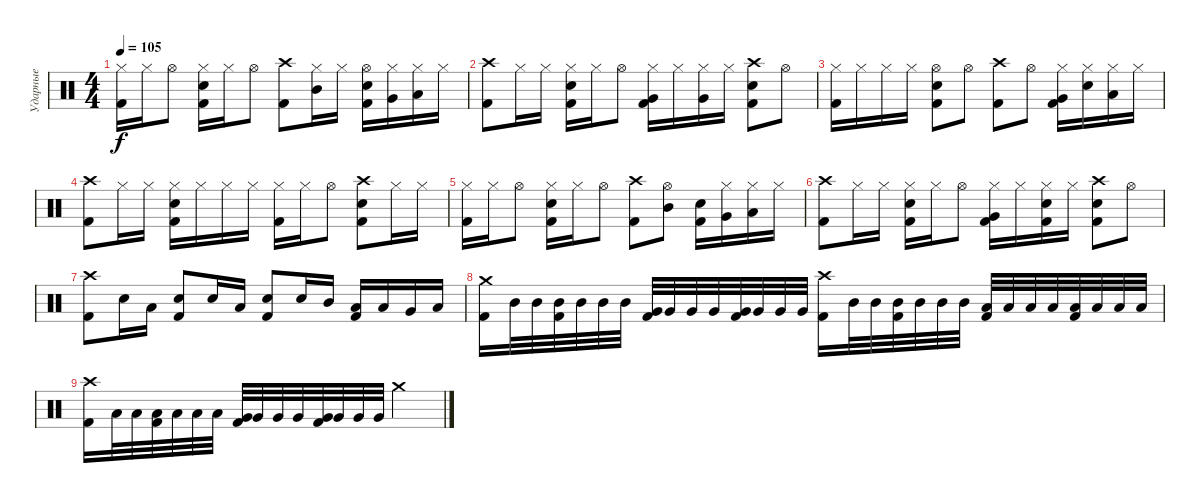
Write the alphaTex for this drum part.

\track ("Ударные" "Ударные") {instrument percussion}
\staff {score}
\articulation defaults
\ts (4 4)
\tempo 105
\clef neutral
\ks c
("Hi-Hat (closed)" "Kick (hit) 2").16{dy f} "Hi-Hat (closed)".16 "Hi-Hat (open)".8 ("Hi-Hat (closed)" "Kick (hit) 2" "Electric Snare (hit)").16 "Hi-Hat (closed)".16 "Hi-Hat (open)".8 ("Crash high (hit)" "Kick (hit) 2").8 ("Hi-Hat (closed)" "Mid Tom (hit)").16 "Hi-Hat (closed)".16 ("Hi-Hat (open)" "Kick (hit) 2" "Electric Snare (hit)").16 ("Hi-Hat (closed)" "Very Low Tom (hit)").16 ("Hi-Hat (closed)" "Low Floor Tom (hit)").16 "Hi-Hat (closed)".16 |
("Crash high (hit)" "Kick (hit) 2").8 "Hi-Hat (closed)".16 "Hi-Hat (closed)".16 ("Hi-Hat (closed)" "Kick (hit) 2" "Electric Snare (hit)").16 "Hi-Hat (closed)".16 "Hi-Hat (open)".8 ("Hi-Hat (closed)" "Kick (hit) 2" "Very Low Tom (hit)").16 "Hi-Hat (closed)".16 ("Hi-Hat (closed)" "Very Low Tom (hit)").16 "Hi-Hat (closed)".16 ("Crash high (hit)" "Kick (hit) 2" "Electric Snare (hit)").8 "Hi-Hat (open)".8 |
("Hi-Hat (closed)" "Kick (hit) 2").16 "Hi-Hat (closed)".16 "Hi-Hat (closed)".16 "Hi-Hat (closed)".16 ("Hi-Hat (open)" "Kick (hit) 2" "Electric Snare (hit)").8 "Hi-Hat (open)".8 ("Crash high (hit)" "Kick (hit) 2").8 "Hi-Hat (open)".8 ("Hi-Hat (closed)" "Very Low Tom (hit)" "Kick (hit) 2").16 ("Hi-Hat (closed)" "Electric Snare (hit)").16 ("Hi-Hat (closed)" "Low Tom (hit)").16 "Hi-Hat (closed)".16 |
("Crash high (hit)" "Kick (hit) 2").8 "Hi-Hat (closed)".16 "Hi-Hat (closed)".16 ("Hi-Hat (closed)" "Kick (hit) 2" "Electric Snare (hit)").16 "Hi-Hat (closed)".16 "Hi-Hat (closed)".16 "Hi-Hat (closed)".16 ("Hi-Hat (closed)" "Kick (hit) 2").16 "Hi-Hat (closed)".16 "Hi-Hat (open)".8 ("Crash high (hit)" "Kick (hit) 2" "Electric Snare (hit)").8 "Hi-Hat (closed)".16 "Hi-Hat (closed)".16 |
("Hi-Hat (closed)" "Kick (hit) 2").16 "Hi-Hat (closed)".16 "Hi-Hat (open)".8 ("Hi-Hat (closed)" "Kick (hit) 2" "Electric Snare (hit)").16 "Hi-Hat (closed)".16 "Hi-Hat (open)".8 ("Crash high (hit)" "Kick (hit) 2").8 ("Hi-Hat (open)" "Mid Tom (hit)").8 ("Kick (hit) 2" "Electric Snare (hit)").16 ("Hi-Hat (closed)" "Very Low Tom (hit)").16 ("Hi-Hat (closed)" "Low Floor Tom (hit)").16 "Hi-Hat (closed)".16 |
("Crash high (hit)" "Kick (hit) 2").8 "Hi-Hat (closed)".16 "Hi-Hat (closed)".16 ("Hi-Hat (closed)" "Kick (hit) 2" "Electric Snare (hit)").16 "Hi-Hat (closed)".16 "Hi-Hat (open)".8 ("Hi-Hat (closed)" "Kick (hit) 2" "Very Low Tom (hit)").16 "Hi-Hat (closed)".16 ("Hi-Hat (closed)" "Electric Snare (hit)" "Kick (hit) 2").16 "Hi-Hat (closed)".16 ("Crash high (hit)" "Kick (hit) 2" "Electric Snare (hit)").8 "Hi-Hat (open)".8 |
("Crash high (hit)" "Kick (hit) 2").8 "Electric Snare (hit)".16 "Low Tom (hit)".16 ("Electric Snare (hit)" "Kick (hit) 2").8 "Electric Snare (hit)".16 "Low Tom (hit)".16 ("Electric Snare (hit)" "Kick (hit) 2").8 "Electric Snare (hit)".16 "Mid Tom (hit)".16 ("Low Tom (hit)" "Kick (hit) 2").16 "Low Tom (hit)".16 "Very Low Tom (hit)".16 "Low Floor Tom (hit)".16 |
("Crash medium (hit)" "Kick (hit) 2").16 "Mid Tom (hit)".32 "Mid Tom (hit)".32 ("Mid Tom (hit)" "Kick (hit) 2").32 "Mid Tom (hit)".32 "Mid Tom (hit)".32 "Mid Tom (hit)".32 ("Very Low Tom (hit)" "Kick (hit) 2").32 "Very Low Tom (hit)".32 "Very Low Tom (hit)".32 "Very Low Tom (hit)".32 ("Very Low Tom (hit)" "Kick (hit) 2").32 "Very Low Tom (hit)".32 "Very Low Tom (hit)".32 "Very Low Tom (hit)".32 ("Crash high (hit)" "Kick (hit) 2").16 "Mid Tom (hit)".32 "Mid Tom (hit)".32 ("Mid Tom (hit)" "Kick (hit) 2").32 "Mid Tom (hit)".32 "Mid Tom (hit)".32 "Mid Tom (hit)".32 ("Low Tom (hit)" "Kick (hit) 2").32 "Low Tom (hit)".32 "Low Tom (hit)".32 "Low Tom (hit)".32 ("Low Tom (hit)" "Kick (hit) 2").32 "Low Tom (hit)".32 "Low Tom (hit)".32 "Low Tom (hit)".32 |
("Crash high (hit)" "Kick (hit) 2").16 "Low Tom (hit)".32 "Low Tom (hit)".32 ("Low Tom (hit)" "Kick (hit) 2").32 "Low Tom (hit)".32 "Low Tom (hit)".32 "Low Tom (hit)".32 ("Very Low Tom (hit)" "Kick (hit) 2").32 "Very Low Tom (hit)".32 "Very Low Tom (hit)".32 "Very Low Tom (hit)".32 ("Very Low Tom (hit)" "Kick (hit) 2").32 "Very Low Tom (hit)".32 "Very Low Tom (hit)".32 "Very Low Tom (hit)".32 "Crash medium (hit)".2
